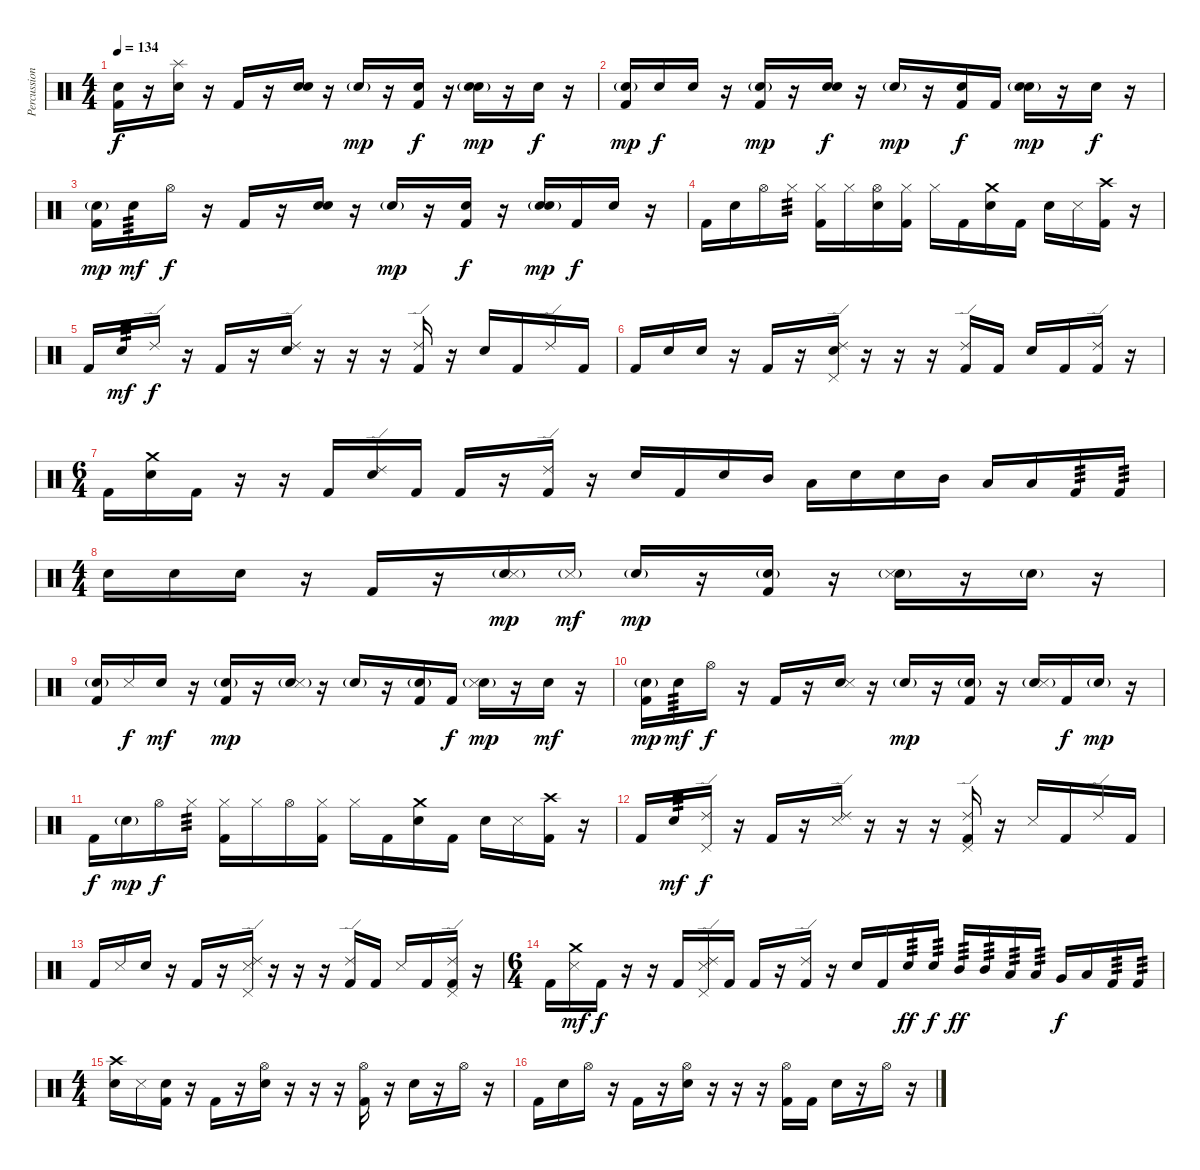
\track ("Percussion" "Percussion") {instrument percussion}
\staff {score}
\articulation defaults
\ts (4 4)
\tempo 134
\clef neutral
\ks c
("Snare (hit)" "Kick (hit) 2").16{dy f} r.16 ("Splash (hit)" "Snare (hit) 2").16 r.16 "Kick (hit) 2".16 r.16 ("Snare (hit)" "Snare (hit) 2").16 r.16 "Snare (hit)"{g}.16{dy mp} r.16 ("Snare (hit)" "Kick (hit) 2").16{dy f} r.16 ("Snare (hit)"{g} "Snare (hit) 2").16{dy mp} r.16 "Snare (hit)".16{dy f} r.16 |
("Snare (hit)"{g} "Kick (hit) 2").16{dy mp} "Snare (hit) 2".16{dy f} "Snare (hit)".16 r.16 ("Snare (hit)"{g} "Kick (hit) 2").16{dy mp} r.16 ("Snare (hit)" "Snare (hit) 2").16{dy f} r.16 "Snare (hit)"{g}.16{dy mp} r.16 ("Snare (hit)" "Kick (hit) 2").16{dy f} "Kick (hit) 2".16 ("Snare (hit)"{g} "Snare (hit) 2").16{dy mp} r.16 "Snare (hit)".16{dy f} r.16 |
("Snare (hit)"{g} "Kick (hit) 2").16{dy mp} "Snare (hit) 2".16{tp 3 dy mf} "Hi-Hat (open)".16{dy f} r.16 "Kick (hit) 2".16 r.16 ("Snare (hit)" "Snare (hit) 2").16 r.16 "Snare (hit)"{g}.16{dy mp} r.16 ("Snare (hit)" "Kick (hit) 2").16{dy f} r.16 ("Snare (hit)"{g} "Snare (hit) 2").16{dy mp} "Kick (hit) 2".16{dy f} "Snare (hit)".16 r.16 |
"Kick (hit) 2".16 "Snare (hit) 2".16 "Hi-Hat (open)".16 "Hi-Hat (closed)".16{tp 3} ("Hi-Hat (closed)" "Kick (hit) 2").16 "Hi-Hat (closed)".16 ("Hi-Hat (open)" "Snare (hit) 2").16 ("Hi-Hat (closed)" "Kick (hit) 2").16 "Hi-Hat (closed)".16 "Kick (hit) 2".16 ("Crash medium (hit)" "Snare (hit) 2").16 "Kick (hit) 2".16 "Snare (hit) 2".16 "Metronome (hit)".16 ("Crash high (hit)" "Kick (hit) 2").16 r.16 |
"Kick (hit) 2".16 "Snare (hit) 2".16{tp 3 dy mf} "Ride (edge) 2".16{dy f} r.16 "Kick (hit) 2".16 r.16 ("Ride (edge) 2" "Snare (hit) 2").16 r.16 r.16 r.16 ("Ride (edge) 2" "Kick (hit) 2").16 r.16 "Snare (hit) 2".16 "Kick (hit) 2".16 "Ride (edge) 2".16 "Kick (hit) 2".16 |
"Kick (hit) 2".16 "Snare (hit) 2".16 "Snare (hit)".16 r.16 "Kick (hit) 2".16 r.16 ("Ride (edge) 2" "Pedal Hi-Hat (hit)" "Snare (hit) 2").16 r.16 r.16 r.16 ("Ride (edge) 2" "Kick (hit) 2").16 "Kick (hit) 2".16 "Snare (hit) 2".16 "Kick (hit) 2".16 ("Ride (edge) 2" "Kick (hit) 2").16 r.16 |
\ts (6 4)
"Kick (hit) 2".16 ("Crash medium (hit)" "Snare (hit) 2").16 "Kick (hit) 2".16 r.16 r.16 "Kick (hit) 2".16 ("Ride (edge) 2" "Snare (hit) 2").16 "Kick (hit) 2".16 "Kick (hit) 2".16 r.16 ("Ride (edge) 2" "Kick (hit) 2").16 r.16 "Snare (hit) 2".16 "Kick (hit) 2".16 "Snare (hit) 2".16 "Mid Tom (hit)".16 "Low Tom (hit)".16 "Snare (hit) 2".16 "Snare (hit) 2".16 "Mid Tom (hit)".16 "Low Tom (hit)".16 "Low Tom (hit)".16 "Kick (hit) 2".16{tp 3} "Kick (hit) 2".16{tp 3} |
\ts (4 4)
"Electric Snare (hit)".16 "Electric Snare (hit)".16 "Snare (hit)".16 r.16 "Kick (hit) 2".16 r.16 ("Snare (hit)"{g} "Snare (side stick) 3").16{dy mp} "Snare (side stick) 3"{g}.16{dy mf} "Snare (hit)"{g}.16{dy mp} r.16 ("Snare (hit)"{g} "Kick (hit) 2").16 r.16 ("Snare (hit)"{g} "Snare (side stick) 3").16 r.16 "Snare (hit)"{g}.16 r.16 |
("Snare (hit)"{g} "Kick (hit) 2").16 "Snare (side stick) 3".16{dy f} "Snare (hit)".16{dy mf} r.16 ("Snare (hit)"{g} "Kick (hit) 2").16{dy mp} r.16 ("Snare (hit)"{g} "Snare (side stick) 3").16 r.16 "Snare (hit)"{g}.16 r.16 ("Snare (hit)"{g} "Kick (hit) 2").16 "Kick (hit) 2".16{dy f} ("Snare (hit)"{g} "Snare (side stick) 3").16{dy mp} r.16 "Snare (hit)".16{dy mf} r.16 |
("Snare (hit)"{g} "Kick (hit) 2").16{dy mp} "Snare (hit) 2".16{tp 3 dy mf} "Hi-Hat (open)".16{dy f} r.16 "Kick (hit) 2".16 r.16 ("Snare (hit)" "Snare (side stick) 3").16 r.16 "Snare (hit)"{g}.16{dy mp} r.16 ("Snare (hit)"{g} "Kick (hit) 2").16 r.16 ("Snare (hit)"{g} "Snare (side stick) 3").16 "Kick (hit) 2".16{dy f} "Snare (hit)"{g}.16{dy mp} r.16 |
"Kick (hit) 2".16{dy f} "Snare (hit) 2"{g}.16{dy mp} "Hi-Hat (open)".16{dy f} "Hi-Hat (closed)".16{tp 3} ("Hi-Hat (closed)" "Kick (hit) 2").16 "Hi-Hat (closed)".16 "Hi-Hat (open)".16 ("Hi-Hat (closed)" "Kick (hit) 2").16 "Hi-Hat (closed)".16 "Kick (hit) 2".16 ("Crash medium (hit)" "Snare (hit) 2").16 "Kick (hit) 2".16 "Snare (hit) 2".16 "Metronome (hit)".16 ("Crash high (hit)" "Kick (hit) 2").16 r.16 |
"Kick (hit) 2".16 "Snare (hit) 2".16{tp 3 dy mf} ("Ride (edge) 2" "Pedal Hi-Hat (hit)").16{dy f} r.16 "Kick (hit) 2".16 r.16 ("Ride (edge) 2" "Snare (side stick) 3").16 r.16 r.16 r.16 ("Ride (edge) 2" "Pedal Hi-Hat (hit)" "Kick (hit) 2").16 r.16 "Snare (side stick) 3".16 "Kick (hit) 2".16 "Ride (edge) 2".16 "Kick (hit) 2".16 |
"Kick (hit) 2".16 "Snare (side stick) 3".16 "Snare (hit)".16 r.16 "Kick (hit) 2".16 r.16 ("Ride (edge) 2" "Pedal Hi-Hat (hit)" "Snare (side stick) 3").16 r.16 r.16 r.16 ("Ride (edge) 2" "Kick (hit) 2").16 "Kick (hit) 2".16 "Snare (side stick) 3".16 "Kick (hit) 2".16 ("Ride (edge) 2" "Pedal Hi-Hat (hit)" "Kick (hit) 2").16 r.16 |
\ts (6 4)
"Kick (hit) 2".16 ("Crash medium (hit)" "Snare (side stick) 3").16{dy mf} "Kick (hit) 2".16{dy f} r.16 r.16 "Kick (hit) 2".16 ("Ride (edge) 2" "Pedal Hi-Hat (hit)" "Snare (side stick) 3").16 "Kick (hit) 2".16 "Kick (hit) 2".16 r.16 ("Ride (edge) 2" "Kick (hit) 2").16 r.16 "Snare (hit) 2".16 "Kick (hit) 2".16 "Snare (hit) 2".16{tp 3 dy ff} "Snare (hit) 2".16{tp 3 dy f} "Mid Tom (hit)".16{tp 3 dy ff} "Mid Tom (hit)".16{tp 3} "Low Tom (hit)".16{tp 3} "Low Tom (hit)".16{tp 3} "Very Low Tom (hit)".16{dy f} "Low Floor Tom (hit)".16 "Kick (hit) 2".16{tp 3} "Kick (hit) 2".16{tp 3} |
\ts (4 4)
("Crash high (hit)" "Snare (hit) 2").16 "Metronome (hit)".16 ("Snare (hit)" "Kick (hit) 2").16 r.16 "Kick (hit) 2".16 r.16 ("Hi-Hat (open)" "Snare (hit) 2").16 r.16 r.16 r.16 ("Hi-Hat (open)" "Kick (hit) 2").16 r.16 "Snare (hit) 2".16 r.16 "Hi-Hat (open)".16 r.16 |
"Kick (hit) 2".16 "Snare (hit) 2".16 "Hi-Hat (open)".16 r.16 "Kick (hit) 2".16 r.16 ("Hi-Hat (open)" "Snare (hit) 2").16 r.16 r.16 r.16 ("Hi-Hat (open)" "Kick (hit) 2").16 "Kick (hit) 2".16 "Snare (hit) 2".16 r.16 "Hi-Hat (open)".16 r.16
